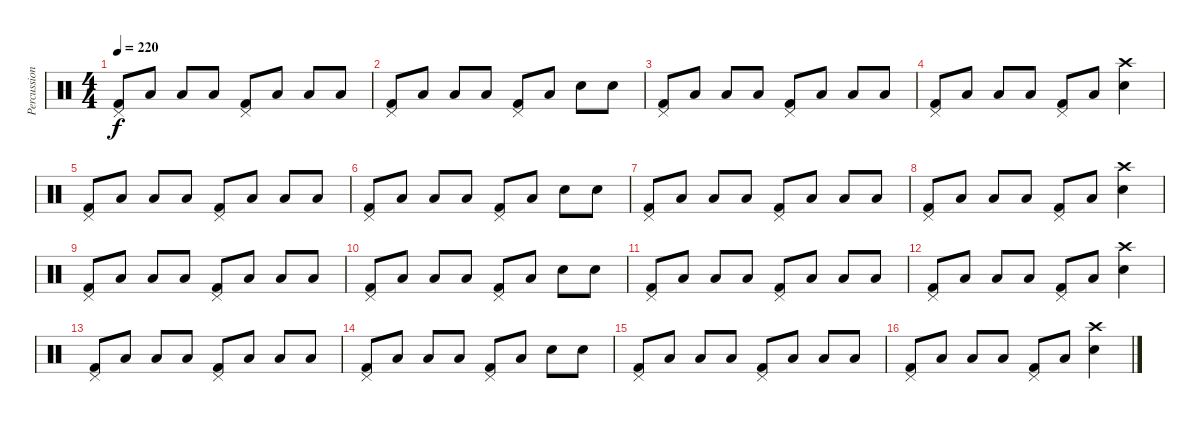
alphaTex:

\track ("Percussion" "Percussion") {instrument percussion}
\staff {score}
\articulation defaults
\ts (4 4)
\tempo 220
\clef neutral
\ks c
("Pedal Hi-Hat (hit)" "Kick (hit) 2").8{dy f} "Low Tom (hit)".8 "Low Tom (hit)".8 "Low Tom (hit)".8 ("Pedal Hi-Hat (hit)" "Kick (hit) 2").8 "Low Tom (hit)".8 "Low Tom (hit)".8 "Low Tom (hit)".8 |
("Pedal Hi-Hat (hit)" "Kick (hit) 2").8 "Low Tom (hit)".8 "Low Tom (hit)".8 "Low Tom (hit)".8 ("Pedal Hi-Hat (hit)" "Kick (hit) 2").8 "Low Tom (hit)".8 "Snare (hit) 2".8 "Snare (hit) 2".8 |
("Pedal Hi-Hat (hit)" "Kick (hit) 2").8 "Low Tom (hit)".8 "Low Tom (hit)".8 "Low Tom (hit)".8 ("Pedal Hi-Hat (hit)" "Kick (hit) 2").8 "Low Tom (hit)".8 "Low Tom (hit)".8 "Low Tom (hit)".8 |
("Pedal Hi-Hat (hit)" "Kick (hit) 2").8 "Low Tom (hit)".8 "Low Tom (hit)".8 "Low Tom (hit)".8 ("Pedal Hi-Hat (hit)" "Kick (hit) 2").8 "Low Tom (hit)".8 ("Crash high (hit)" "Snare (hit) 2").4 |
("Pedal Hi-Hat (hit)" "Kick (hit) 2").8 "Low Tom (hit)".8 "Low Tom (hit)".8 "Low Tom (hit)".8 ("Pedal Hi-Hat (hit)" "Kick (hit) 2").8 "Low Tom (hit)".8 "Low Tom (hit)".8 "Low Tom (hit)".8 |
("Pedal Hi-Hat (hit)" "Kick (hit) 2").8 "Low Tom (hit)".8 "Low Tom (hit)".8 "Low Tom (hit)".8 ("Pedal Hi-Hat (hit)" "Kick (hit) 2").8 "Low Tom (hit)".8 "Snare (hit) 2".8 "Snare (hit) 2".8 |
("Pedal Hi-Hat (hit)" "Kick (hit) 2").8 "Low Tom (hit)".8 "Low Tom (hit)".8 "Low Tom (hit)".8 ("Pedal Hi-Hat (hit)" "Kick (hit) 2").8 "Low Tom (hit)".8 "Low Tom (hit)".8 "Low Tom (hit)".8 |
("Pedal Hi-Hat (hit)" "Kick (hit) 2").8 "Low Tom (hit)".8 "Low Tom (hit)".8 "Low Tom (hit)".8 ("Pedal Hi-Hat (hit)" "Kick (hit) 2").8 "Low Tom (hit)".8 ("Crash high (hit)" "Snare (hit) 2").4 |
("Pedal Hi-Hat (hit)" "Kick (hit) 2").8 "Low Tom (hit)".8 "Low Tom (hit)".8 "Low Tom (hit)".8 ("Pedal Hi-Hat (hit)" "Kick (hit) 2").8 "Low Tom (hit)".8 "Low Tom (hit)".8 "Low Tom (hit)".8 |
("Pedal Hi-Hat (hit)" "Kick (hit) 2").8 "Low Tom (hit)".8 "Low Tom (hit)".8 "Low Tom (hit)".8 ("Pedal Hi-Hat (hit)" "Kick (hit) 2").8 "Low Tom (hit)".8 "Snare (hit) 2".8 "Snare (hit) 2".8 |
("Pedal Hi-Hat (hit)" "Kick (hit) 2").8 "Low Tom (hit)".8 "Low Tom (hit)".8 "Low Tom (hit)".8 ("Pedal Hi-Hat (hit)" "Kick (hit) 2").8 "Low Tom (hit)".8 "Low Tom (hit)".8 "Low Tom (hit)".8 |
("Pedal Hi-Hat (hit)" "Kick (hit) 2").8 "Low Tom (hit)".8 "Low Tom (hit)".8 "Low Tom (hit)".8 ("Pedal Hi-Hat (hit)" "Kick (hit) 2").8 "Low Tom (hit)".8 ("Crash high (hit)" "Snare (hit) 2").4 |
("Pedal Hi-Hat (hit)" "Kick (hit) 2").8 "Low Tom (hit)".8 "Low Tom (hit)".8 "Low Tom (hit)".8 ("Pedal Hi-Hat (hit)" "Kick (hit) 2").8 "Low Tom (hit)".8 "Low Tom (hit)".8 "Low Tom (hit)".8 |
("Pedal Hi-Hat (hit)" "Kick (hit) 2").8 "Low Tom (hit)".8 "Low Tom (hit)".8 "Low Tom (hit)".8 ("Pedal Hi-Hat (hit)" "Kick (hit) 2").8 "Low Tom (hit)".8 "Snare (hit) 2".8 "Snare (hit) 2".8 |
("Pedal Hi-Hat (hit)" "Kick (hit) 2").8 "Low Tom (hit)".8 "Low Tom (hit)".8 "Low Tom (hit)".8 ("Pedal Hi-Hat (hit)" "Kick (hit) 2").8 "Low Tom (hit)".8 "Low Tom (hit)".8 "Low Tom (hit)".8 |
("Pedal Hi-Hat (hit)" "Kick (hit) 2").8 "Low Tom (hit)".8 "Low Tom (hit)".8 "Low Tom (hit)".8 ("Pedal Hi-Hat (hit)" "Kick (hit) 2").8 "Low Tom (hit)".8 ("Crash high (hit)" "Snare (hit) 2").4
